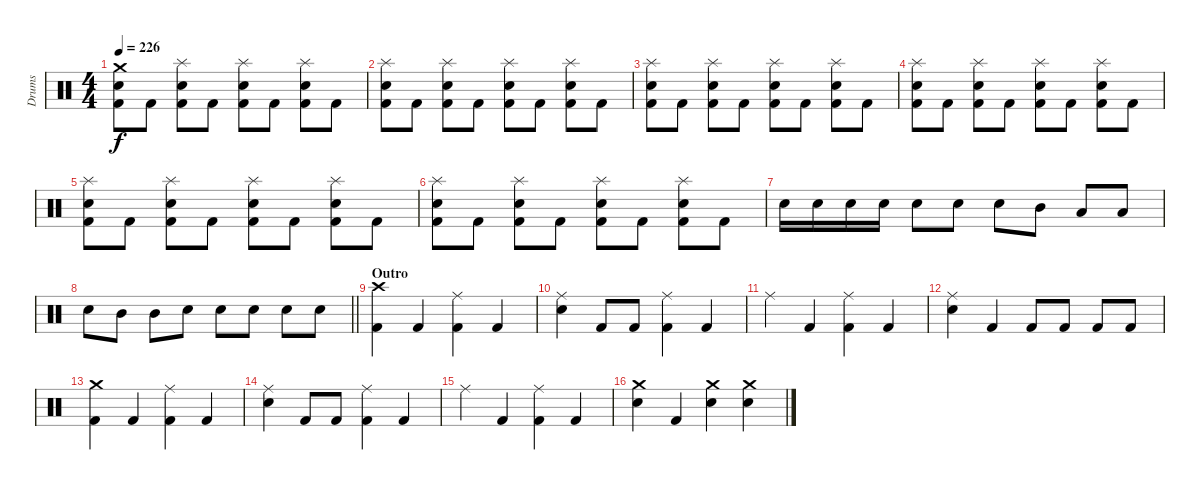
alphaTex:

\track ("Drums" "Drums") {instrument percussion}
\staff {score}
\articulation defaults
\ts (4 4)
\tempo 226
\clef neutral
\ks c
("Crash medium (hit)" "Snare (hit) 2" "Kick (hit) 2").8{dy f} "Kick (hit) 2".8 ("Splash (hit)" "Snare (hit) 2" "Kick (hit) 2").8 "Kick (hit) 2".8 ("Splash (hit)" "Snare (hit) 2" "Kick (hit) 2").8 "Kick (hit) 2".8 ("Splash (hit)" "Snare (hit) 2" "Kick (hit) 2").8 "Kick (hit) 2".8 |
("Splash (hit)" "Snare (hit) 2" "Kick (hit) 2").8 "Kick (hit) 2".8 ("Splash (hit)" "Snare (hit) 2" "Kick (hit) 2").8 "Kick (hit) 2".8 ("Splash (hit)" "Snare (hit) 2" "Kick (hit) 2").8 "Kick (hit) 2".8 ("Splash (hit)" "Snare (hit) 2" "Kick (hit) 2").8 "Kick (hit) 2".8 |
("Splash (hit)" "Snare (hit) 2" "Kick (hit) 2").8 "Kick (hit) 2".8 ("Splash (hit)" "Snare (hit) 2" "Kick (hit) 2").8 "Kick (hit) 2".8 ("Splash (hit)" "Snare (hit) 2" "Kick (hit) 2").8 "Kick (hit) 2".8 ("Splash (hit)" "Snare (hit) 2" "Kick (hit) 2").8 "Kick (hit) 2".8 |
("Splash (hit)" "Snare (hit) 2" "Kick (hit) 2").8 "Kick (hit) 2".8 ("Splash (hit)" "Snare (hit) 2" "Kick (hit) 2").8 "Kick (hit) 2".8 ("Splash (hit)" "Snare (hit) 2" "Kick (hit) 2").8 "Kick (hit) 2".8 ("Splash (hit)" "Snare (hit) 2" "Kick (hit) 2").8 "Kick (hit) 2".8 |
("Splash (hit)" "Snare (hit) 2" "Kick (hit) 2").8 "Kick (hit) 2".8 ("Splash (hit)" "Snare (hit) 2" "Kick (hit) 2").8 "Kick (hit) 2".8 ("Splash (hit)" "Snare (hit) 2" "Kick (hit) 2").8 "Kick (hit) 2".8 ("Splash (hit)" "Snare (hit) 2" "Kick (hit) 2").8 "Kick (hit) 2".8 |
("Splash (hit)" "Snare (hit) 2" "Kick (hit) 2").8 "Kick (hit) 2".8 ("Splash (hit)" "Snare (hit) 2" "Kick (hit) 2").8 "Kick (hit) 2".8 ("Splash (hit)" "Snare (hit) 2" "Kick (hit) 2").8 "Kick (hit) 2".8 ("Splash (hit)" "Snare (hit) 2" "Kick (hit) 2").8 "Kick (hit) 2".8 |
"Snare (hit) 2".16 "Snare (hit) 2".16 "Snare (hit) 2".16 "Snare (hit) 2".16 "Snare (hit) 2".8 "Snare (hit) 2".8 "Snare (hit) 2".8 "Mid Tom (hit)".8 "Low Tom (hit)".8 "Low Tom (hit)".8 |
\barLineRight lightlight "Snare (hit) 2".8 "Mid Tom (hit)".8 "Mid Tom (hit)".8 "Snare (hit) 2".8 "Snare (hit) 2".8 "Snare (hit) 2".8 "Snare (hit) 2".8 "Snare (hit) 2".8
|
\section ("" "Outro")
("Crash high (hit)" "Kick (hit) 2").4 "Kick (hit) 2".4 ("Ride (middle)" "Kick (hit) 2").4 "Kick (hit) 2".4 |
("Ride (middle)" "Snare (hit) 2").4 "Kick (hit) 2".8 "Kick (hit) 2".8 ("Ride (middle)" "Kick (hit) 2").4 "Kick (hit) 2".4 |
"Ride (middle)".4 "Kick (hit) 2".4 ("Ride (middle)" "Kick (hit) 2").4 "Kick (hit) 2".4 |
("Ride (middle)" "Snare (hit) 2").4 "Kick (hit) 2".4 "Kick (hit) 2".8 "Kick (hit) 2".8 "Kick (hit) 2".8 "Kick (hit) 2".8 |
("Crash medium (hit)" "Kick (hit) 2").4 "Kick (hit) 2".4 ("Ride (middle)" "Kick (hit) 2").4 "Kick (hit) 2".4 |
("Ride (middle)" "Snare (hit) 2").4 "Kick (hit) 2".8 "Kick (hit) 2".8 ("Ride (middle)" "Kick (hit) 2").4 "Kick (hit) 2".4 |
"Ride (middle)".4 "Kick (hit) 2".4 ("Ride (middle)" "Kick (hit) 2").4 "Kick (hit) 2".4 |
("Crash medium (hit)" "Snare (hit) 2").4 "Kick (hit) 2".4 ("Crash medium (hit)" "Snare (hit) 2").4 ("Crash medium (hit)" "Snare (hit) 2").4
